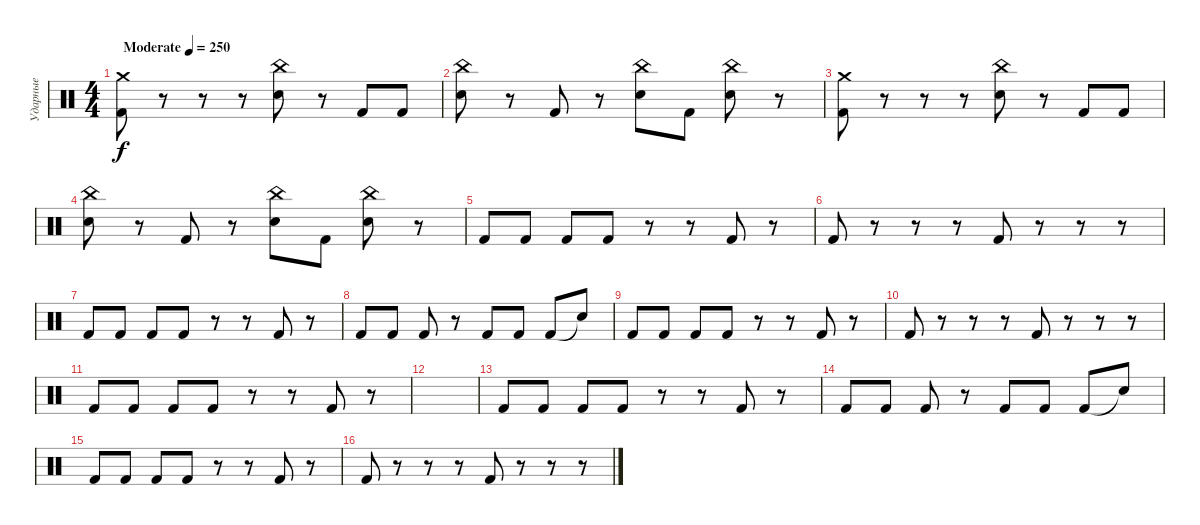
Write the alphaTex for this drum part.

\track ("Ударные" "Ударные") {instrument percussion}
\staff {score}
\articulation defaults
\ts (4 4)
\tempo (250 "Moderate")
\clef neutral
\ks c
("Crash medium (hit)" "Kick (hit) 2").8{dy f} r.8 r.8 r.8 ("Snare (hit) 2" "China (hit)").8 r.8 "Kick (hit) 2".8 "Kick (hit) 2".8 |
("Snare (hit) 2" "China (hit)").8 r.8 "Kick (hit) 2".8 r.8 ("Snare (hit) 2" "China (hit)").8 "Kick (hit) 2".8 ("Snare (hit) 2" "China (hit)").8 r.8 |
("Crash medium (hit)" "Kick (hit) 2").8 r.8 r.8 r.8 ("Snare (hit) 2" "China (hit)").8 r.8 "Kick (hit) 2".8 "Kick (hit) 2".8 |
("Snare (hit) 2" "China (hit)").8 r.8 "Kick (hit) 2".8 r.8 ("Snare (hit) 2" "China (hit)").8 "Kick (hit) 2".8 ("Snare (hit) 2" "China (hit)").8 r.8 |
"Kick (hit) 2".8 "Kick (hit) 2".8 "Kick (hit) 2".8 "Kick (hit) 2".8 r.8 r.8 "Kick (hit) 2".8 r.8 |
"Kick (hit) 2".8 r.8 r.8 r.8 "Kick (hit) 2".8 r.8 r.8 r.8 |
"Kick (hit) 2".8 "Kick (hit) 2".8 "Kick (hit) 2".8 "Kick (hit) 2".8 r.8 r.8 "Kick (hit) 2".8 r.8 |
"Kick (hit) 2".8 "Kick (hit) 2".8 "Kick (hit) 2".8 r.8 "Kick (hit) 2".8 "Kick (hit) 2".8 "Kick (hit) 2".8 "Snare (hit)"{t}.8 |
"Kick (hit) 2".8 "Kick (hit) 2".8 "Kick (hit) 2".8 "Kick (hit) 2".8 r.8 r.8 "Kick (hit) 2".8 r.8 |
"Kick (hit) 2".8 r.8 r.8 r.8 "Kick (hit) 2".8 r.8 r.8 r.8 |
"Kick (hit) 2".8 "Kick (hit) 2".8 "Kick (hit) 2".8 "Kick (hit) 2".8 r.8 r.8 "Kick (hit) 2".8 r.8 |
|
"Kick (hit) 2".8 "Kick (hit) 2".8 "Kick (hit) 2".8 "Kick (hit) 2".8 r.8 r.8 "Kick (hit) 2".8 r.8 |
"Kick (hit) 2".8 "Kick (hit) 2".8 "Kick (hit) 2".8 r.8 "Kick (hit) 2".8 "Kick (hit) 2".8 "Kick (hit) 2".8 "Snare (hit)"{t}.8 |
"Kick (hit) 2".8 "Kick (hit) 2".8 "Kick (hit) 2".8 "Kick (hit) 2".8 r.8 r.8 "Kick (hit) 2".8 r.8 |
"Kick (hit) 2".8 r.8 r.8 r.8 "Kick (hit) 2".8 r.8 r.8 r.8
